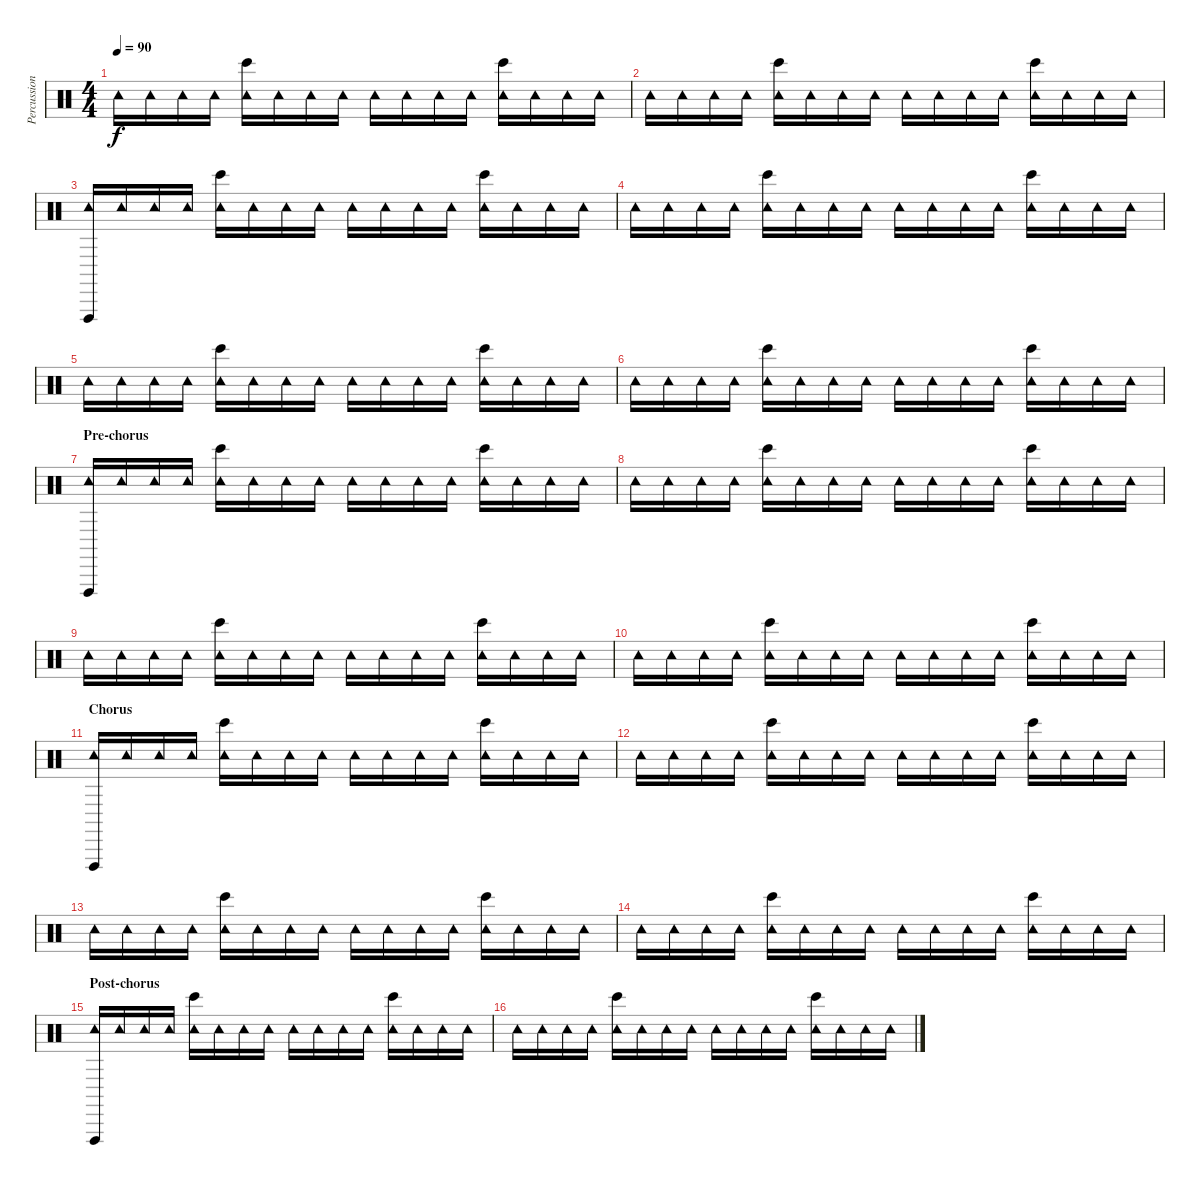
\track ("Percussion" "Percussion") {instrument percussion}
\staff {score}
\articulation defaults
\ts (4 4)
\tempo 90
\clef neutral
\ks c "Tambourine (hit)".16{dy f} "Tambourine (hit)".16 "Tambourine (hit)".16 "Tambourine (hit)".16
("Tambourine (hit)" "Bongo High (hit)").16 "Tambourine (hit)".16 "Tambourine (hit)".16 "Tambourine (hit)".16 "Tambourine (hit)".16 "Tambourine (hit)".16 "Tambourine (hit)".16 "Tambourine (hit)".16 ("Tambourine (hit)" "Bongo High (hit)").16 "Tambourine (hit)".16 "Tambourine (hit)".16 "Tambourine (hit)".16 |
"Tambourine (hit)".16 "Tambourine (hit)".16 "Tambourine (hit)".16 "Tambourine (hit)".16 ("Tambourine (hit)" "Bongo High (hit)").16 "Tambourine (hit)".16 "Tambourine (hit)".16 "Tambourine (hit)".16 "Tambourine (hit)".16 "Tambourine (hit)".16 "Tambourine (hit)".16 "Tambourine (hit)".16 ("Tambourine (hit)" "Bongo High (hit)").16 "Tambourine (hit)".16 "Tambourine (hit)".16 "Tambourine (hit)".16 |
("Tambourine (hit)" "Vibraslap (hit)").16 "Tambourine (hit)".16 "Tambourine (hit)".16 "Tambourine (hit)".16 ("Tambourine (hit)" "Bongo High (hit)").16 "Tambourine (hit)".16 "Tambourine (hit)".16 "Tambourine (hit)".16 "Tambourine (hit)".16 "Tambourine (hit)".16 "Tambourine (hit)".16 "Tambourine (hit)".16 ("Tambourine (hit)" "Bongo High (hit)").16 "Tambourine (hit)".16 "Tambourine (hit)".16 "Tambourine (hit)".16 |
"Tambourine (hit)".16 "Tambourine (hit)".16 "Tambourine (hit)".16 "Tambourine (hit)".16 ("Tambourine (hit)" "Bongo High (hit)").16 "Tambourine (hit)".16 "Tambourine (hit)".16 "Tambourine (hit)".16 "Tambourine (hit)".16 "Tambourine (hit)".16 "Tambourine (hit)".16 "Tambourine (hit)".16 ("Tambourine (hit)" "Bongo High (hit)").16 "Tambourine (hit)".16 "Tambourine (hit)".16 "Tambourine (hit)".16 |
"Tambourine (hit)".16 "Tambourine (hit)".16 "Tambourine (hit)".16 "Tambourine (hit)".16 ("Tambourine (hit)" "Bongo High (hit)").16 "Tambourine (hit)".16 "Tambourine (hit)".16 "Tambourine (hit)".16 "Tambourine (hit)".16 "Tambourine (hit)".16 "Tambourine (hit)".16 "Tambourine (hit)".16 ("Tambourine (hit)" "Bongo High (hit)").16 "Tambourine (hit)".16 "Tambourine (hit)".16 "Tambourine (hit)".16 |
"Tambourine (hit)".16 "Tambourine (hit)".16 "Tambourine (hit)".16 "Tambourine (hit)".16 ("Tambourine (hit)" "Bongo High (hit)").16 "Tambourine (hit)".16 "Tambourine (hit)".16 "Tambourine (hit)".16 "Tambourine (hit)".16 "Tambourine (hit)".16 "Tambourine (hit)".16 "Tambourine (hit)".16 ("Tambourine (hit)" "Bongo High (hit)").16 "Tambourine (hit)".16 "Tambourine (hit)".16 "Tambourine (hit)".16 |
\section ("" "Pre-chorus")
("Tambourine (hit)" "Vibraslap (hit)").16 "Tambourine (hit)".16 "Tambourine (hit)".16 "Tambourine (hit)".16 ("Tambourine (hit)" "Bongo High (hit)").16 "Tambourine (hit)".16 "Tambourine (hit)".16 "Tambourine (hit)".16 "Tambourine (hit)".16 "Tambourine (hit)".16 "Tambourine (hit)".16 "Tambourine (hit)".16 ("Tambourine (hit)" "Bongo High (hit)").16 "Tambourine (hit)".16 "Tambourine (hit)".16 "Tambourine (hit)".16 |
"Tambourine (hit)".16 "Tambourine (hit)".16 "Tambourine (hit)".16 "Tambourine (hit)".16 ("Tambourine (hit)" "Bongo High (hit)").16 "Tambourine (hit)".16 "Tambourine (hit)".16 "Tambourine (hit)".16 "Tambourine (hit)".16 "Tambourine (hit)".16 "Tambourine (hit)".16 "Tambourine (hit)".16 ("Tambourine (hit)" "Bongo High (hit)").16 "Tambourine (hit)".16 "Tambourine (hit)".16 "Tambourine (hit)".16 |
"Tambourine (hit)".16 "Tambourine (hit)".16 "Tambourine (hit)".16 "Tambourine (hit)".16 ("Tambourine (hit)" "Bongo High (hit)").16 "Tambourine (hit)".16 "Tambourine (hit)".16 "Tambourine (hit)".16 "Tambourine (hit)".16 "Tambourine (hit)".16 "Tambourine (hit)".16 "Tambourine (hit)".16 ("Tambourine (hit)" "Bongo High (hit)").16 "Tambourine (hit)".16 "Tambourine (hit)".16 "Tambourine (hit)".16 |
"Tambourine (hit)".16 "Tambourine (hit)".16 "Tambourine (hit)".16 "Tambourine (hit)".16 ("Tambourine (hit)" "Bongo High (hit)").16 "Tambourine (hit)".16 "Tambourine (hit)".16 "Tambourine (hit)".16 "Tambourine (hit)".16 "Tambourine (hit)".16 "Tambourine (hit)".16 "Tambourine (hit)".16 ("Tambourine (hit)" "Bongo High (hit)").16 "Tambourine (hit)".16 "Tambourine (hit)".16 "Tambourine (hit)".16 |
\section ("" "Chorus")
("Tambourine (hit)" "Vibraslap (hit)").16 "Tambourine (hit)".16 "Tambourine (hit)".16 "Tambourine (hit)".16 ("Tambourine (hit)" "Bongo High (hit)").16 "Tambourine (hit)".16 "Tambourine (hit)".16 "Tambourine (hit)".16 "Tambourine (hit)".16 "Tambourine (hit)".16 "Tambourine (hit)".16 "Tambourine (hit)".16 ("Tambourine (hit)" "Bongo High (hit)").16 "Tambourine (hit)".16 "Tambourine (hit)".16 "Tambourine (hit)".16 |
"Tambourine (hit)".16 "Tambourine (hit)".16 "Tambourine (hit)".16 "Tambourine (hit)".16 ("Tambourine (hit)" "Bongo High (hit)").16 "Tambourine (hit)".16 "Tambourine (hit)".16 "Tambourine (hit)".16 "Tambourine (hit)".16 "Tambourine (hit)".16 "Tambourine (hit)".16 "Tambourine (hit)".16 ("Tambourine (hit)" "Bongo High (hit)").16 "Tambourine (hit)".16 "Tambourine (hit)".16 "Tambourine (hit)".16 |
"Tambourine (hit)".16 "Tambourine (hit)".16 "Tambourine (hit)".16 "Tambourine (hit)".16 ("Tambourine (hit)" "Bongo High (hit)").16 "Tambourine (hit)".16 "Tambourine (hit)".16 "Tambourine (hit)".16 "Tambourine (hit)".16 "Tambourine (hit)".16 "Tambourine (hit)".16 "Tambourine (hit)".16 ("Tambourine (hit)" "Bongo High (hit)").16 "Tambourine (hit)".16 "Tambourine (hit)".16 "Tambourine (hit)".16 |
"Tambourine (hit)".16 "Tambourine (hit)".16 "Tambourine (hit)".16 "Tambourine (hit)".16 ("Tambourine (hit)" "Bongo High (hit)").16 "Tambourine (hit)".16 "Tambourine (hit)".16 "Tambourine (hit)".16 "Tambourine (hit)".16 "Tambourine (hit)".16 "Tambourine (hit)".16 "Tambourine (hit)".16 ("Tambourine (hit)" "Bongo High (hit)").16 "Tambourine (hit)".16 "Tambourine (hit)".16 "Tambourine (hit)".16 |
\section ("" "Post-chorus")
("Tambourine (hit)" "Vibraslap (hit)").16 "Tambourine (hit)".16 "Tambourine (hit)".16 "Tambourine (hit)".16 ("Tambourine (hit)" "Bongo High (hit)").16 "Tambourine (hit)".16 "Tambourine (hit)".16 "Tambourine (hit)".16 "Tambourine (hit)".16 "Tambourine (hit)".16 "Tambourine (hit)".16 "Tambourine (hit)".16 ("Tambourine (hit)" "Bongo High (hit)").16 "Tambourine (hit)".16 "Tambourine (hit)".16 "Tambourine (hit)".16 |
"Tambourine (hit)".16 "Tambourine (hit)".16 "Tambourine (hit)".16 "Tambourine (hit)".16 ("Tambourine (hit)" "Bongo High (hit)").16 "Tambourine (hit)".16 "Tambourine (hit)".16 "Tambourine (hit)".16 "Tambourine (hit)".16 "Tambourine (hit)".16 "Tambourine (hit)".16 "Tambourine (hit)".16 ("Tambourine (hit)" "Bongo High (hit)").16 "Tambourine (hit)".16 "Tambourine (hit)".16 "Tambourine (hit)".16
